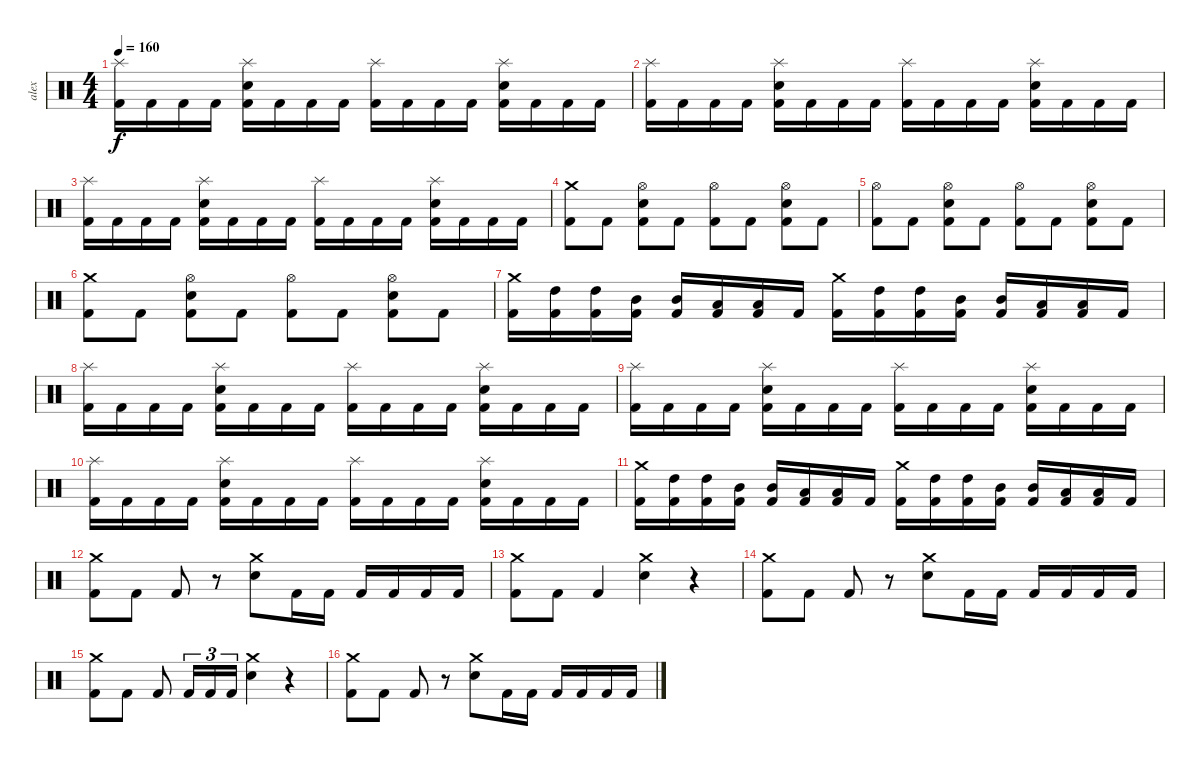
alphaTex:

\track ("alex" "alex") {instrument percussion}
\staff {score}
\articulation defaults
\ts (4 4)
\tempo 160
\clef neutral
\ks c
("Splash (hit)" "Kick (hit) 2").16{dy f} "Kick (hit) 2".16 "Kick (hit) 2".16 "Kick (hit) 2".16 ("Kick (hit) 2" "Electric Snare (hit)" "Splash (hit)").16 "Kick (hit) 2".16 "Kick (hit) 2".16 "Kick (hit) 2".16 ("Kick (hit) 2" "Splash (hit)").16 "Kick (hit) 2".16 "Kick (hit) 2".16 "Kick (hit) 2".16 ("Kick (hit) 2" "Splash (hit)" "Electric Snare (hit)").16 "Kick (hit) 2".16 "Kick (hit) 2".16 "Kick (hit) 2".16 |
("Splash (hit)" "Kick (hit) 2").16 "Kick (hit) 2".16 "Kick (hit) 2".16 "Kick (hit) 2".16 ("Kick (hit) 2" "Electric Snare (hit)" "Splash (hit)").16 "Kick (hit) 2".16 "Kick (hit) 2".16 "Kick (hit) 2".16 ("Kick (hit) 2" "Splash (hit)").16 "Kick (hit) 2".16 "Kick (hit) 2".16 "Kick (hit) 2".16 ("Kick (hit) 2" "Splash (hit)" "Electric Snare (hit)").16 "Kick (hit) 2".16 "Kick (hit) 2".16 "Kick (hit) 2".16 |
("Splash (hit)" "Kick (hit) 2").16 "Kick (hit) 2".16 "Kick (hit) 2".16 "Kick (hit) 2".16 ("Kick (hit) 2" "Electric Snare (hit)" "Splash (hit)").16 "Kick (hit) 2".16 "Kick (hit) 2".16 "Kick (hit) 2".16 ("Kick (hit) 2" "Splash (hit)").16 "Kick (hit) 2".16 "Kick (hit) 2".16 "Kick (hit) 2".16 ("Kick (hit) 2" "Splash (hit)" "Electric Snare (hit)").16 "Kick (hit) 2".16 "Kick (hit) 2".16 "Kick (hit) 2".16 |
("Crash medium (hit)" "Kick (hit) 2").8 "Kick (hit) 2".8 ("Electric Snare (hit)" "Hi-Hat (open)" "Kick (hit) 2").8 "Kick (hit) 2".8 ("Hi-Hat (open)" "Kick (hit) 2").8 "Kick (hit) 2".8 ("Electric Snare (hit)" "Hi-Hat (open)" "Kick (hit) 2").8 "Kick (hit) 2".8 |
("Hi-Hat (open)" "Kick (hit) 2").8 "Kick (hit) 2".8 ("Electric Snare (hit)" "Hi-Hat (open)" "Kick (hit) 2").8 "Kick (hit) 2".8 ("Hi-Hat (open)" "Kick (hit) 2").8 "Kick (hit) 2".8 ("Electric Snare (hit)" "Hi-Hat (open)" "Kick (hit) 2").8 "Kick (hit) 2".8 |
("Crash medium (hit)" "Kick (hit) 2").8 "Kick (hit) 2".8 ("Electric Snare (hit)" "Hi-Hat (open)" "Kick (hit) 2").8 "Kick (hit) 2".8 ("Hi-Hat (open)" "Kick (hit) 2").8 "Kick (hit) 2".8 ("Electric Snare (hit)" "Hi-Hat (open)" "Kick (hit) 2").8 "Kick (hit) 2".8 |
("Crash medium (hit)" "Kick (hit) 2").16 ("High Tom (hit)" "Kick (hit) 2").16 ("High Tom (hit)" "Kick (hit) 2").16 ("Mid Tom (hit)" "Kick (hit) 2").16 ("Mid Tom (hit)" "Kick (hit) 2").16 ("Low Tom (hit)" "Kick (hit) 2").16 ("Low Tom (hit)" "Kick (hit) 2").16 "Kick (hit) 2".16 ("Crash medium (hit)" "Kick (hit) 2").16 ("High Tom (hit)" "Kick (hit) 2").16 ("High Tom (hit)" "Kick (hit) 2").16 ("Mid Tom (hit)" "Kick (hit) 2").16 ("Mid Tom (hit)" "Kick (hit) 2").16 ("Low Tom (hit)" "Kick (hit) 2").16 ("Low Tom (hit)" "Kick (hit) 2").16 "Kick (hit) 2".16 |
("Splash (hit)" "Kick (hit) 2").16 "Kick (hit) 2".16 "Kick (hit) 2".16 "Kick (hit) 2".16 ("Kick (hit) 2" "Electric Snare (hit)" "Splash (hit)").16 "Kick (hit) 2".16 "Kick (hit) 2".16 "Kick (hit) 2".16 ("Kick (hit) 2" "Splash (hit)").16 "Kick (hit) 2".16 "Kick (hit) 2".16 "Kick (hit) 2".16 ("Kick (hit) 2" "Splash (hit)" "Electric Snare (hit)").16 "Kick (hit) 2".16 "Kick (hit) 2".16 "Kick (hit) 2".16 |
("Splash (hit)" "Kick (hit) 2").16 "Kick (hit) 2".16 "Kick (hit) 2".16 "Kick (hit) 2".16 ("Kick (hit) 2" "Electric Snare (hit)" "Splash (hit)").16 "Kick (hit) 2".16 "Kick (hit) 2".16 "Kick (hit) 2".16 ("Kick (hit) 2" "Splash (hit)").16 "Kick (hit) 2".16 "Kick (hit) 2".16 "Kick (hit) 2".16 ("Kick (hit) 2" "Splash (hit)" "Electric Snare (hit)").16 "Kick (hit) 2".16 "Kick (hit) 2".16 "Kick (hit) 2".16 |
("Splash (hit)" "Kick (hit) 2").16 "Kick (hit) 2".16 "Kick (hit) 2".16 "Kick (hit) 2".16 ("Kick (hit) 2" "Electric Snare (hit)" "Splash (hit)").16 "Kick (hit) 2".16 "Kick (hit) 2".16 "Kick (hit) 2".16 ("Kick (hit) 2" "Splash (hit)").16 "Kick (hit) 2".16 "Kick (hit) 2".16 "Kick (hit) 2".16 ("Kick (hit) 2" "Splash (hit)" "Electric Snare (hit)").16 "Kick (hit) 2".16 "Kick (hit) 2".16 "Kick (hit) 2".16 |
("Crash medium (hit)" "Kick (hit) 2").16 ("High Tom (hit)" "Kick (hit) 2").16 ("High Tom (hit)" "Kick (hit) 2").16 ("Mid Tom (hit)" "Kick (hit) 2").16 ("Mid Tom (hit)" "Kick (hit) 2").16 ("Low Tom (hit)" "Kick (hit) 2").16 ("Low Tom (hit)" "Kick (hit) 2").16 "Kick (hit) 2".16 ("Crash medium (hit)" "Kick (hit) 2").16 ("High Tom (hit)" "Kick (hit) 2").16 ("High Tom (hit)" "Kick (hit) 2").16 ("Mid Tom (hit)" "Kick (hit) 2").16 ("Mid Tom (hit)" "Kick (hit) 2").16 ("Low Tom (hit)" "Kick (hit) 2").16 ("Low Tom (hit)" "Kick (hit) 2").16 "Kick (hit) 2".16 |
("Crash medium (hit)" "Kick (hit) 2").8 "Kick (hit) 2".8 "Kick (hit) 2".8 r.8 ("Electric Snare (hit)" "Crash medium (hit)").8 "Kick (hit) 2".16 "Kick (hit) 2".16 "Kick (hit) 2".16 "Kick (hit) 2".16 "Kick (hit) 2".16 "Kick (hit) 2".16 |
("Crash medium (hit)" "Kick (hit) 2").8 "Kick (hit) 2".8 "Kick (hit) 2".4 ("Crash medium (hit)" "Electric Snare (hit)").4 r.4 |
("Crash medium (hit)" "Kick (hit) 2").8 "Kick (hit) 2".8 "Kick (hit) 2".8 r.8 ("Electric Snare (hit)" "Crash medium (hit)").8 "Kick (hit) 2".16 "Kick (hit) 2".16 "Kick (hit) 2".16 "Kick (hit) 2".16 "Kick (hit) 2".16 "Kick (hit) 2".16 |
("Crash medium (hit)" "Kick (hit) 2").8 "Kick (hit) 2".8 "Kick (hit) 2".8 "Kick (hit) 2".16{tu (3 2)} "Kick (hit) 2".16{tu (3 2)} "Kick (hit) 2".16{tu (3 2)} ("Crash medium (hit)" "Electric Snare (hit)").4 r.4 |
("Crash medium (hit)" "Kick (hit) 2").8 "Kick (hit) 2".8 "Kick (hit) 2".8 r.8 ("Electric Snare (hit)" "Crash medium (hit)").8 "Kick (hit) 2".16 "Kick (hit) 2".16 "Kick (hit) 2".16 "Kick (hit) 2".16 "Kick (hit) 2".16 "Kick (hit) 2".16
